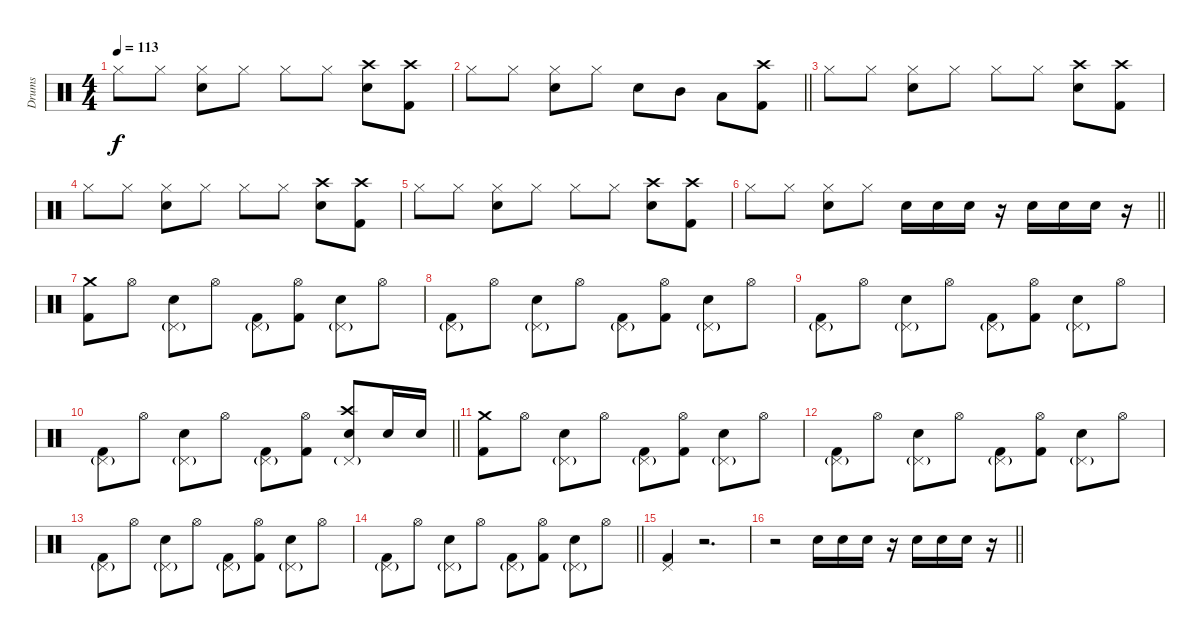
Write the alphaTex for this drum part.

\track ("Drums" "Drums") {instrument percussion}
\staff {score}
\articulation defaults
\ts (4 4)
\tempo 113
\clef neutral
\ks c "Hi-Hat (closed)".8{dy f} "Hi-Hat (closed)".8
("Hi-Hat (closed)" "Electric Snare (hit)").8 "Hi-Hat (closed)".8 "Hi-Hat (closed)".8 "Hi-Hat (closed)".8 ("Crash high (hit)" "Electric Snare (hit)").8 ("Crash high (hit)" "Kick (hit) 2").8 |
\barLineRight lightlight "Hi-Hat (closed)".8 "Hi-Hat (closed)".8
("Hi-Hat (closed)" "Electric Snare (hit)").8 "Hi-Hat (closed)".8 "Electric Snare (hit)".8 "Mid Tom (hit)".8 "Low Tom (hit)".8 ("Crash high (hit)" "Kick (hit) 2").8 |
\section ("" "")
"Hi-Hat (closed)".8 "Hi-Hat (closed)".8 ("Hi-Hat (closed)" "Electric Snare (hit)").8 "Hi-Hat (closed)".8 "Hi-Hat (closed)".8 "Hi-Hat (closed)".8 ("Crash high (hit)" "Electric Snare (hit)").8 ("Crash high (hit)" "Kick (hit) 2").8 |
"Hi-Hat (closed)".8 "Hi-Hat (closed)".8 ("Hi-Hat (closed)" "Electric Snare (hit)").8 "Hi-Hat (closed)".8 "Hi-Hat (closed)".8 "Hi-Hat (closed)".8 ("Crash high (hit)" "Electric Snare (hit)").8 ("Crash high (hit)" "Kick (hit) 2").8 |
"Hi-Hat (closed)".8 "Hi-Hat (closed)".8 ("Hi-Hat (closed)" "Electric Snare (hit)").8 "Hi-Hat (closed)".8 "Hi-Hat (closed)".8 "Hi-Hat (closed)".8 ("Crash high (hit)" "Electric Snare (hit)").8 ("Crash high (hit)" "Kick (hit) 2").8 |
\barLineRight lightlight "Hi-Hat (closed)".8 "Hi-Hat (closed)".8
("Hi-Hat (closed)" "Electric Snare (hit)").8 "Hi-Hat (closed)".8 "Electric Snare (hit)".16 "Electric Snare (hit)".16 "Electric Snare (hit)".16 r.16 "Electric Snare (hit)".16 "Electric Snare (hit)".16 "Electric Snare (hit)".16 r.16 |
\section ("" "")
("Crash medium (hit)" "Kick (hit) 2").8 "Hi-Hat (open)".8 ("Electric Snare (hit)" "Pedal Hi-Hat (hit)"{g}).8 "Hi-Hat (open)".8 ("Kick (hit) 2" "Pedal Hi-Hat (hit)"{g}).8 ("Hi-Hat (open)" "Kick (hit) 2").8 ("Electric Snare (hit)" "Pedal Hi-Hat (hit)"{g}).8 "Hi-Hat (open)".8 |
("Kick (hit) 2" "Pedal Hi-Hat (hit)"{g}).8 "Hi-Hat (open)".8 ("Electric Snare (hit)" "Pedal Hi-Hat (hit)"{g}).8 "Hi-Hat (open)".8 ("Kick (hit) 2" "Pedal Hi-Hat (hit)"{g}).8 ("Hi-Hat (open)" "Kick (hit) 2").8 ("Electric Snare (hit)" "Pedal Hi-Hat (hit)"{g}).8 "Hi-Hat (open)".8 |
("Kick (hit) 2" "Pedal Hi-Hat (hit)"{g}).8 "Hi-Hat (open)".8 ("Electric Snare (hit)" "Pedal Hi-Hat (hit)"{g}).8 "Hi-Hat (open)".8 ("Kick (hit) 2" "Pedal Hi-Hat (hit)"{g}).8 ("Hi-Hat (open)" "Kick (hit) 2").8 ("Electric Snare (hit)" "Pedal Hi-Hat (hit)"{g}).8 "Hi-Hat (open)".8 |
\barLineRight lightlight
("Kick (hit) 2" "Pedal Hi-Hat (hit)"{g}).8 "Hi-Hat (open)".8 ("Electric Snare (hit)" "Pedal Hi-Hat (hit)"{g}).8 "Hi-Hat (open)".8 ("Kick (hit) 2" "Pedal Hi-Hat (hit)"{g}).8 ("Hi-Hat (open)" "Kick (hit) 2").8 ("Crash high (hit)" "Electric Snare (hit)" "Pedal Hi-Hat (hit)"{g}).8 "Electric Snare (hit)".16 "Electric Snare (hit)".16 |
\section ("" "")
("Crash medium (hit)" "Kick (hit) 2").8 "Hi-Hat (open)".8 ("Electric Snare (hit)" "Pedal Hi-Hat (hit)"{g}).8 "Hi-Hat (open)".8 ("Kick (hit) 2" "Pedal Hi-Hat (hit)"{g}).8 ("Hi-Hat (open)" "Kick (hit) 2").8 ("Electric Snare (hit)" "Pedal Hi-Hat (hit)"{g}).8 "Hi-Hat (open)".8 |
("Kick (hit) 2" "Pedal Hi-Hat (hit)"{g}).8 "Hi-Hat (open)".8 ("Electric Snare (hit)" "Pedal Hi-Hat (hit)"{g}).8 "Hi-Hat (open)".8 ("Kick (hit) 2" "Pedal Hi-Hat (hit)"{g}).8 ("Hi-Hat (open)" "Kick (hit) 2").8 ("Electric Snare (hit)" "Pedal Hi-Hat (hit)"{g}).8 "Hi-Hat (open)".8 |
("Kick (hit) 2" "Pedal Hi-Hat (hit)"{g}).8 "Hi-Hat (open)".8 ("Electric Snare (hit)" "Pedal Hi-Hat (hit)"{g}).8 "Hi-Hat (open)".8 ("Kick (hit) 2" "Pedal Hi-Hat (hit)"{g}).8 ("Hi-Hat (open)" "Kick (hit) 2").8 ("Electric Snare (hit)" "Pedal Hi-Hat (hit)"{g}).8 "Hi-Hat (open)".8 |
\barLineRight lightlight
("Kick (hit) 2" "Pedal Hi-Hat (hit)"{g}).8 "Hi-Hat (open)".8 ("Electric Snare (hit)" "Pedal Hi-Hat (hit)"{g}).8 "Hi-Hat (open)".8 ("Kick (hit) 2" "Pedal Hi-Hat (hit)"{g}).8 ("Hi-Hat (open)" "Kick (hit) 2").8 ("Electric Snare (hit)" "Pedal Hi-Hat (hit)"{g}).8 "Hi-Hat (open)".8 |
\section ("" "")
("Kick (hit) 2" "Pedal Hi-Hat (hit)").4 r.2{d} |
\barLineRight lightlight
r.2 "Electric Snare (hit)".16 "Electric Snare (hit)".16 "Electric Snare (hit)".16 r.16 "Electric Snare (hit)".16 "Electric Snare (hit)".16 "Electric Snare (hit)".16 r.16
